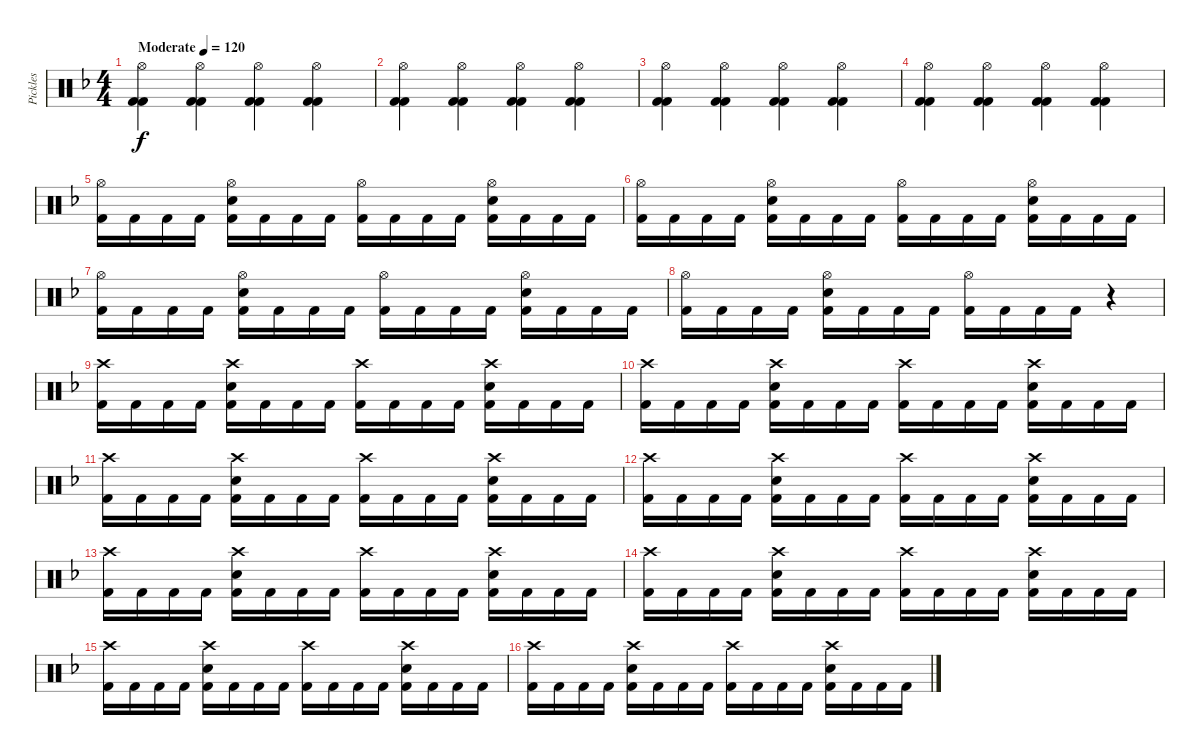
\track ("Pickles" "Pickles") {instrument percussion}
\staff {score}
\articulation defaults
\ts (4 4)
\tempo (120 "Moderate")
\clef neutral
\ks dminor
("Hi-Hat (open)" "Kick (hit) 2" "Kick (hit) 2").4{dy f} ("Hi-Hat (open)" "Kick (hit) 2" "Kick (hit) 2").4 ("Hi-Hat (open)" "Kick (hit) 2" "Kick (hit) 2").4 ("Hi-Hat (open)" "Kick (hit) 2" "Kick (hit) 2").4 |
("Hi-Hat (open)" "Kick (hit) 2" "Kick (hit) 2").4 ("Hi-Hat (open)" "Kick (hit) 2" "Kick (hit) 2").4 ("Hi-Hat (open)" "Kick (hit) 2" "Kick (hit) 2").4 ("Hi-Hat (open)" "Kick (hit) 2" "Kick (hit) 2").4 |
("Hi-Hat (open)" "Kick (hit) 2" "Kick (hit) 2").4 ("Hi-Hat (open)" "Kick (hit) 2" "Kick (hit) 2").4 ("Hi-Hat (open)" "Kick (hit) 2" "Kick (hit) 2").4 ("Hi-Hat (open)" "Kick (hit) 2" "Kick (hit) 2").4 |
("Hi-Hat (open)" "Kick (hit) 2" "Kick (hit) 2").4 ("Hi-Hat (open)" "Kick (hit) 2" "Kick (hit) 2").4 ("Hi-Hat (open)" "Kick (hit) 2" "Kick (hit) 2").4 ("Hi-Hat (open)" "Kick (hit) 2" "Kick (hit) 2").4 |
("Hi-Hat (open)" "Kick (hit) 2").16 "Kick (hit) 2".16 "Kick (hit) 2".16 "Kick (hit) 2".16 ("Hi-Hat (open)" "Snare (hit) 2" "Kick (hit) 2").16 "Kick (hit) 2".16 "Kick (hit) 2".16 "Kick (hit) 2".16 ("Hi-Hat (open)" "Kick (hit) 2").16 "Kick (hit) 2".16 "Kick (hit) 2".16 "Kick (hit) 2".16 ("Hi-Hat (open)" "Snare (hit) 2" "Kick (hit) 2").16 "Kick (hit) 2".16 "Kick (hit) 2".16 "Kick (hit) 2".16 |
("Hi-Hat (open)" "Kick (hit) 2").16 "Kick (hit) 2".16 "Kick (hit) 2".16 "Kick (hit) 2".16 ("Hi-Hat (open)" "Snare (hit) 2" "Kick (hit) 2").16 "Kick (hit) 2".16 "Kick (hit) 2".16 "Kick (hit) 2".16 ("Hi-Hat (open)" "Kick (hit) 2").16 "Kick (hit) 2".16 "Kick (hit) 2".16 "Kick (hit) 2".16 ("Hi-Hat (open)" "Snare (hit) 2" "Kick (hit) 2").16 "Kick (hit) 2".16 "Kick (hit) 2".16 "Kick (hit) 2".16 |
("Hi-Hat (open)" "Kick (hit) 2").16 "Kick (hit) 2".16 "Kick (hit) 2".16 "Kick (hit) 2".16 ("Hi-Hat (open)" "Snare (hit) 2" "Kick (hit) 2").16 "Kick (hit) 2".16 "Kick (hit) 2".16 "Kick (hit) 2".16 ("Hi-Hat (open)" "Kick (hit) 2").16 "Kick (hit) 2".16 "Kick (hit) 2".16 "Kick (hit) 2".16 ("Hi-Hat (open)" "Snare (hit) 2" "Kick (hit) 2").16 "Kick (hit) 2".16 "Kick (hit) 2".16 "Kick (hit) 2".16 |
("Hi-Hat (open)" "Kick (hit) 2").16 "Kick (hit) 2".16 "Kick (hit) 2".16 "Kick (hit) 2".16 ("Hi-Hat (open)" "Snare (hit) 2" "Kick (hit) 2").16 "Kick (hit) 2".16 "Kick (hit) 2".16 "Kick (hit) 2".16 ("Hi-Hat (open)" "Kick (hit) 2").16 "Kick (hit) 2".16 "Kick (hit) 2".16 "Kick (hit) 2".16 r.4 |
("Crash high (hit)" "Kick (hit) 2").16 "Kick (hit) 2".16 "Kick (hit) 2".16 "Kick (hit) 2".16 ("Crash high (hit)" "Snare (hit) 2" "Kick (hit) 2").16 "Kick (hit) 2".16 "Kick (hit) 2".16 "Kick (hit) 2".16 ("Crash high (hit)" "Kick (hit) 2").16 "Kick (hit) 2".16 "Kick (hit) 2".16 "Kick (hit) 2".16 ("Crash high (hit)" "Snare (hit) 2" "Kick (hit) 2").16 "Kick (hit) 2".16 "Kick (hit) 2".16 "Kick (hit) 2".16 |
("Crash high (hit)" "Kick (hit) 2").16 "Kick (hit) 2".16 "Kick (hit) 2".16 "Kick (hit) 2".16 ("Crash high (hit)" "Snare (hit) 2" "Kick (hit) 2").16 "Kick (hit) 2".16 "Kick (hit) 2".16 "Kick (hit) 2".16 ("Crash high (hit)" "Kick (hit) 2").16 "Kick (hit) 2".16 "Kick (hit) 2".16 "Kick (hit) 2".16 ("Crash high (hit)" "Snare (hit) 2" "Kick (hit) 2").16 "Kick (hit) 2".16 "Kick (hit) 2".16 "Kick (hit) 2".16 |
("Crash high (hit)" "Kick (hit) 2").16 "Kick (hit) 2".16 "Kick (hit) 2".16 "Kick (hit) 2".16 ("Crash high (hit)" "Snare (hit) 2" "Kick (hit) 2").16 "Kick (hit) 2".16 "Kick (hit) 2".16 "Kick (hit) 2".16 ("Crash high (hit)" "Kick (hit) 2").16 "Kick (hit) 2".16 "Kick (hit) 2".16 "Kick (hit) 2".16 ("Crash high (hit)" "Snare (hit) 2" "Kick (hit) 2").16 "Kick (hit) 2".16 "Kick (hit) 2".16 "Kick (hit) 2".16 |
("Crash high (hit)" "Kick (hit) 2").16 "Kick (hit) 2".16 "Kick (hit) 2".16 "Kick (hit) 2".16 ("Crash high (hit)" "Snare (hit) 2" "Kick (hit) 2").16 "Kick (hit) 2".16 "Kick (hit) 2".16 "Kick (hit) 2".16 ("Crash high (hit)" "Kick (hit) 2").16 "Kick (hit) 2".16 "Kick (hit) 2".16 "Kick (hit) 2".16 ("Crash high (hit)" "Snare (hit) 2" "Kick (hit) 2").16 "Kick (hit) 2".16 "Kick (hit) 2".16 "Kick (hit) 2".16 |
("Crash high (hit)" "Kick (hit) 2").16 "Kick (hit) 2".16 "Kick (hit) 2".16 "Kick (hit) 2".16 ("Crash high (hit)" "Snare (hit) 2" "Kick (hit) 2").16 "Kick (hit) 2".16 "Kick (hit) 2".16 "Kick (hit) 2".16 ("Crash high (hit)" "Kick (hit) 2").16 "Kick (hit) 2".16 "Kick (hit) 2".16 "Kick (hit) 2".16 ("Crash high (hit)" "Snare (hit) 2" "Kick (hit) 2").16 "Kick (hit) 2".16 "Kick (hit) 2".16 "Kick (hit) 2".16 |
("Crash high (hit)" "Kick (hit) 2").16 "Kick (hit) 2".16 "Kick (hit) 2".16 "Kick (hit) 2".16 ("Crash high (hit)" "Snare (hit) 2" "Kick (hit) 2").16 "Kick (hit) 2".16 "Kick (hit) 2".16 "Kick (hit) 2".16 ("Crash high (hit)" "Kick (hit) 2").16 "Kick (hit) 2".16 "Kick (hit) 2".16 "Kick (hit) 2".16 ("Crash high (hit)" "Snare (hit) 2" "Kick (hit) 2").16 "Kick (hit) 2".16 "Kick (hit) 2".16 "Kick (hit) 2".16 |
("Crash high (hit)" "Kick (hit) 2").16 "Kick (hit) 2".16 "Kick (hit) 2".16 "Kick (hit) 2".16 ("Crash high (hit)" "Snare (hit) 2" "Kick (hit) 2").16 "Kick (hit) 2".16 "Kick (hit) 2".16 "Kick (hit) 2".16 ("Crash high (hit)" "Kick (hit) 2").16 "Kick (hit) 2".16 "Kick (hit) 2".16 "Kick (hit) 2".16 ("Crash high (hit)" "Snare (hit) 2" "Kick (hit) 2").16 "Kick (hit) 2".16 "Kick (hit) 2".16 "Kick (hit) 2".16 |
("Crash high (hit)" "Kick (hit) 2").16 "Kick (hit) 2".16 "Kick (hit) 2".16 "Kick (hit) 2".16 ("Crash high (hit)" "Snare (hit) 2" "Kick (hit) 2").16 "Kick (hit) 2".16 "Kick (hit) 2".16 "Kick (hit) 2".16 ("Crash high (hit)" "Kick (hit) 2").16 "Kick (hit) 2".16 "Kick (hit) 2".16 "Kick (hit) 2".16 ("Crash high (hit)" "Snare (hit) 2" "Kick (hit) 2").16 "Kick (hit) 2".16 "Kick (hit) 2".16 "Kick (hit) 2".16
